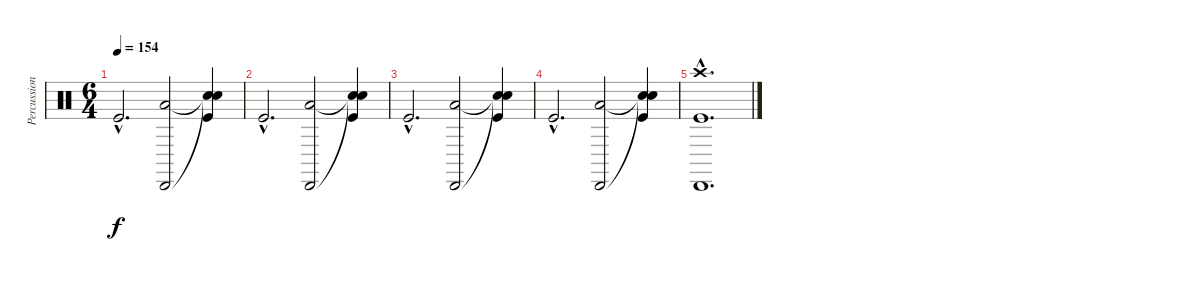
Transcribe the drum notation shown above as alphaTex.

\track ("Percussions" "Percussion") {instrument percussion}
\staff {score}
\articulation defaults
\ts (6 4)
\tempo 154
\clef neutral
\ks c "Kick (hit)"{hac}.2{d dy f}
("Cabasa (hit)" "Low Tom (hit)").2 ("Snare (hit)"{t} "Snare (hit)"{t} "Kick (hit)").4 |
"Kick (hit)"{hac}.2{d} ("Cabasa (hit)" "Low Tom (hit)").2 ("Snare (hit)"{t} "Snare (hit)"{t} "Kick (hit)").4 |
"Kick (hit)"{hac}.2{d} ("Cabasa (hit)" "Low Tom (hit)").2 ("Snare (hit)"{t} "Snare (hit)"{t} "Kick (hit)").4 |
"Kick (hit)"{hac}.2{d} ("Cabasa (hit)" "Low Tom (hit)").2 ("Snare (hit)"{t} "Snare (hit)"{t} "Kick (hit)").4 |
("Cabasa (hit)"{hac} "Kick (hit)"{hac} "Crash high (hit)"{hac}).1{d}
